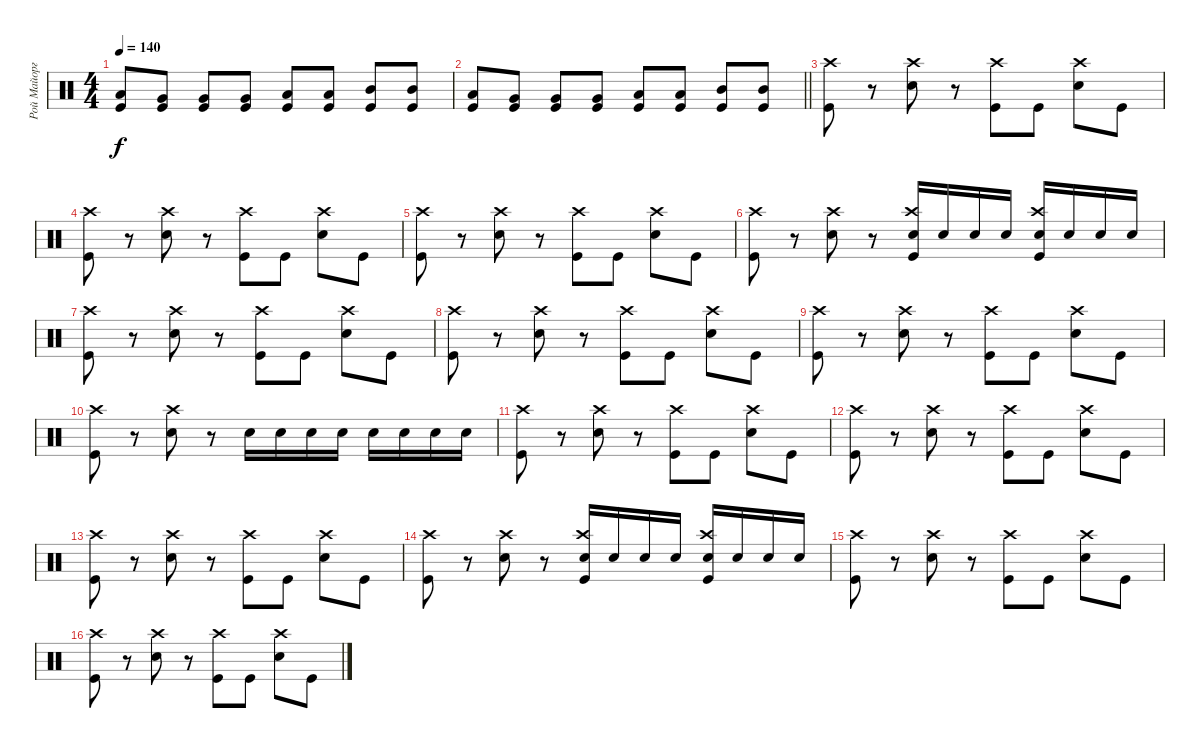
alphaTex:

\track ("Рой Майорга" "Рой Майорг") {instrument percussion}
\staff {score}
\articulation defaults
\ts (4 4)
\tempo 140
\clef neutral
\ks c
("Low Tom (hit)" "Kick (hit)").8{dy f} ("Very Low Tom (hit)" "Kick (hit)").8 ("Very Low Tom (hit)" "Kick (hit)").8 ("Very Low Tom (hit)" "Kick (hit)").8 ("Low Tom (hit)" "Kick (hit)").8 ("Low Tom (hit)" "Kick (hit)").8 ("Mid Tom (hit)" "Kick (hit)").8 ("Mid Tom (hit)" "Kick (hit)").8 |
\barLineRight lightlight
("Low Tom (hit)" "Kick (hit)").8 ("Very Low Tom (hit)" "Kick (hit)").8 ("Very Low Tom (hit)" "Kick (hit)").8 ("Very Low Tom (hit)" "Kick (hit)").8 ("Low Tom (hit)" "Kick (hit)").8 ("Low Tom (hit)" "Kick (hit)").8 ("Mid Tom (hit)" "Kick (hit)").8 ("Mid Tom (hit)" "Kick (hit)").8 |
("Crash high (hit)" "Kick (hit)").8 r.8 ("Crash high (hit)" "Snare (hit) 2").8 r.8 ("Crash high (hit)" "Kick (hit)").8 "Kick (hit)".8 ("Crash high (hit)" "Snare (hit) 2").8 "Kick (hit)".8 |
("Crash high (hit)" "Kick (hit)").8 r.8 ("Crash high (hit)" "Snare (hit) 2").8 r.8 ("Crash high (hit)" "Kick (hit)").8 "Kick (hit)".8 ("Crash high (hit)" "Snare (hit) 2").8 "Kick (hit)".8 |
("Crash high (hit)" "Kick (hit)").8 r.8 ("Crash high (hit)" "Snare (hit) 2").8 r.8 ("Crash high (hit)" "Kick (hit)").8 "Kick (hit)".8 ("Crash high (hit)" "Snare (hit) 2").8 "Kick (hit)".8 |
("Crash high (hit)" "Kick (hit)").8 r.8 ("Crash high (hit)" "Snare (hit) 2").8 r.8 ("Crash high (hit)" "Snare (hit) 2" "Kick (hit)").16 "Snare (hit) 2".16 "Snare (hit) 2".16 "Snare (hit) 2".16 ("Crash high (hit)" "Snare (hit) 2" "Kick (hit)").16 "Snare (hit) 2".16 "Snare (hit) 2".16 "Snare (hit) 2".16 |
("Crash high (hit)" "Kick (hit)").8 r.8 ("Crash high (hit)" "Snare (hit) 2").8 r.8 ("Crash high (hit)" "Kick (hit)").8 "Kick (hit)".8 ("Crash high (hit)" "Snare (hit) 2").8 "Kick (hit)".8 |
("Crash high (hit)" "Kick (hit)").8 r.8 ("Crash high (hit)" "Snare (hit) 2").8 r.8 ("Crash high (hit)" "Kick (hit)").8 "Kick (hit)".8 ("Crash high (hit)" "Snare (hit) 2").8 "Kick (hit)".8 |
("Crash high (hit)" "Kick (hit)").8 r.8 ("Crash high (hit)" "Snare (hit) 2").8 r.8 ("Crash high (hit)" "Kick (hit)").8 "Kick (hit)".8 ("Crash high (hit)" "Snare (hit) 2").8 "Kick (hit)".8 |
("Crash high (hit)" "Kick (hit)").8 r.8 ("Crash high (hit)" "Snare (hit) 2").8 r.8 "Snare (hit) 2".16 "Snare (hit) 2".16 "Snare (hit) 2".16 "Snare (hit) 2".16 "Snare (hit) 2".16 "Snare (hit) 2".16 "Snare (hit) 2".16 "Snare (hit) 2".16 |
("Crash high (hit)" "Kick (hit)").8 r.8 ("Crash high (hit)" "Snare (hit) 2").8 r.8 ("Crash high (hit)" "Kick (hit)").8 "Kick (hit)".8 ("Crash high (hit)" "Snare (hit) 2").8 "Kick (hit)".8 |
("Crash high (hit)" "Kick (hit)").8 r.8 ("Crash high (hit)" "Snare (hit) 2").8 r.8 ("Crash high (hit)" "Kick (hit)").8 "Kick (hit)".8 ("Crash high (hit)" "Snare (hit) 2").8 "Kick (hit)".8 |
("Crash high (hit)" "Kick (hit)").8 r.8 ("Crash high (hit)" "Snare (hit) 2").8 r.8 ("Crash high (hit)" "Kick (hit)").8 "Kick (hit)".8 ("Crash high (hit)" "Snare (hit) 2").8 "Kick (hit)".8 |
("Crash high (hit)" "Kick (hit)").8 r.8 ("Crash high (hit)" "Snare (hit) 2").8 r.8 ("Crash high (hit)" "Snare (hit) 2" "Kick (hit)").16 "Snare (hit) 2".16 "Snare (hit) 2".16 "Snare (hit) 2".16 ("Crash high (hit)" "Snare (hit) 2" "Kick (hit)").16 "Snare (hit) 2".16 "Snare (hit) 2".16 "Snare (hit) 2".16 |
("Crash high (hit)" "Kick (hit)").8 r.8 ("Crash high (hit)" "Snare (hit) 2").8 r.8 ("Crash high (hit)" "Kick (hit)").8 "Kick (hit)".8 ("Crash high (hit)" "Snare (hit) 2").8 "Kick (hit)".8 |
("Crash high (hit)" "Kick (hit)").8 r.8 ("Crash high (hit)" "Snare (hit) 2").8 r.8 ("Crash high (hit)" "Kick (hit)").8 "Kick (hit)".8 ("Crash high (hit)" "Snare (hit) 2").8 "Kick (hit)".8
